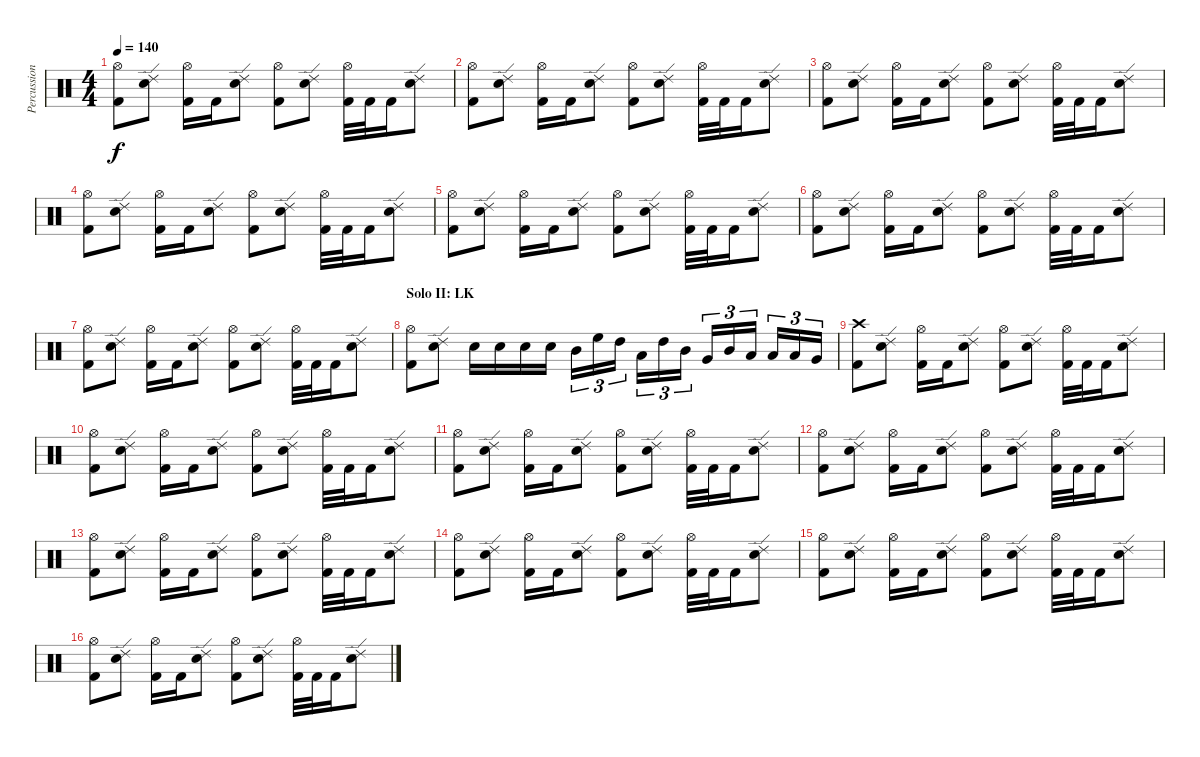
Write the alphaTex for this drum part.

\track ("Percussion" "Percussion") {instrument percussion}
\staff {score}
\articulation defaults
\ts (4 4)
\tempo 140
\clef neutral
\ks c
("Hi-Hat (open)" "Kick (hit) 2").8{dy f} ("Ride (edge) 2" "Electric Snare (hit)").8 ("Hi-Hat (open)" "Kick (hit) 2").16 "Kick (hit) 2".16 ("Ride (edge) 2" "Electric Snare (hit)").8 ("Hi-Hat (open)" "Kick (hit) 2").8 ("Ride (edge) 2" "Electric Snare (hit)").8 ("Hi-Hat (open)" "Kick (hit) 2").32 "Kick (hit) 2".32 "Kick (hit) 2".16 ("Ride (edge) 2" "Electric Snare (hit)").8 |
("Hi-Hat (open)" "Kick (hit) 2").8 ("Ride (edge) 2" "Electric Snare (hit)").8 ("Hi-Hat (open)" "Kick (hit) 2").16 "Kick (hit) 2".16 ("Ride (edge) 2" "Electric Snare (hit)").8 ("Hi-Hat (open)" "Kick (hit) 2").8 ("Ride (edge) 2" "Electric Snare (hit)").8 ("Hi-Hat (open)" "Kick (hit) 2").32 "Kick (hit) 2".32 "Kick (hit) 2".16 ("Ride (edge) 2" "Electric Snare (hit)").8 |
("Hi-Hat (open)" "Kick (hit) 2").8 ("Ride (edge) 2" "Electric Snare (hit)").8 ("Hi-Hat (open)" "Kick (hit) 2").16 "Kick (hit) 2".16 ("Ride (edge) 2" "Electric Snare (hit)").8 ("Hi-Hat (open)" "Kick (hit) 2").8 ("Ride (edge) 2" "Electric Snare (hit)").8 ("Hi-Hat (open)" "Kick (hit) 2").32 "Kick (hit) 2".32 "Kick (hit) 2".16 ("Ride (edge) 2" "Electric Snare (hit)").8 |
("Hi-Hat (open)" "Kick (hit) 2").8 ("Ride (edge) 2" "Electric Snare (hit)").8 ("Hi-Hat (open)" "Kick (hit) 2").16 "Kick (hit) 2".16 ("Ride (edge) 2" "Electric Snare (hit)").8 ("Hi-Hat (open)" "Kick (hit) 2").8 ("Ride (edge) 2" "Electric Snare (hit)").8 ("Hi-Hat (open)" "Kick (hit) 2").32 "Kick (hit) 2".32 "Kick (hit) 2".16 ("Ride (edge) 2" "Electric Snare (hit)").8 |
("Hi-Hat (open)" "Kick (hit) 2").8 ("Ride (edge) 2" "Electric Snare (hit)").8 ("Hi-Hat (open)" "Kick (hit) 2").16 "Kick (hit) 2".16 ("Ride (edge) 2" "Electric Snare (hit)").8 ("Hi-Hat (open)" "Kick (hit) 2").8 ("Ride (edge) 2" "Electric Snare (hit)").8 ("Hi-Hat (open)" "Kick (hit) 2").32 "Kick (hit) 2".32 "Kick (hit) 2".16 ("Ride (edge) 2" "Electric Snare (hit)").8 |
("Hi-Hat (open)" "Kick (hit) 2").8 ("Ride (edge) 2" "Electric Snare (hit)").8 ("Hi-Hat (open)" "Kick (hit) 2").16 "Kick (hit) 2".16 ("Ride (edge) 2" "Electric Snare (hit)").8 ("Hi-Hat (open)" "Kick (hit) 2").8 ("Ride (edge) 2" "Electric Snare (hit)").8 ("Hi-Hat (open)" "Kick (hit) 2").32 "Kick (hit) 2".32 "Kick (hit) 2".16 ("Ride (edge) 2" "Electric Snare (hit)").8 |
("Hi-Hat (open)" "Kick (hit) 2").8 ("Ride (edge) 2" "Electric Snare (hit)").8 ("Hi-Hat (open)" "Kick (hit) 2").16 "Kick (hit) 2".16 ("Ride (edge) 2" "Electric Snare (hit)").8 ("Hi-Hat (open)" "Kick (hit) 2").8 ("Ride (edge) 2" "Electric Snare (hit)").8 ("Hi-Hat (open)" "Kick (hit) 2").32 "Kick (hit) 2".32 "Kick (hit) 2".16 ("Ride (edge) 2" "Electric Snare (hit)").8 |
\section ("" "Solo II: LK")
("Hi-Hat (open)" "Kick (hit) 2").8 ("Ride (edge) 2" "Electric Snare (hit)").8 "Electric Snare (hit)".16 "Electric Snare (hit)".16 "Electric Snare (hit)".16 "Electric Snare (hit)".16 "Mid Tom (hit)".16{tu (3 2)} "High Floor Tom (hit)".16{tu (3 2)} "High Tom (hit)".16{tu (3 2)} "Low Tom (hit)".16{tu (3 2)} "High Tom (hit)".16{tu (3 2)} "Mid Tom (hit)".16{tu (3 2)} "Very Low Tom (hit)".16{tu (3 2)} "Mid Tom (hit)".16{tu (3 2)} "Low Tom (hit)".16{tu (3 2)} "Low Floor Tom (hit)".16{tu (3 2)} "Low Tom (hit)".16{tu (3 2)} "Very Low Tom (hit)".16{tu (3 2)} |
("Crash high (hit)" "Kick (hit) 2").8 ("Ride (edge) 2" "Electric Snare (hit)").8 ("Hi-Hat (open)" "Kick (hit) 2").16 "Kick (hit) 2".16 ("Ride (edge) 2" "Electric Snare (hit)").8 ("Hi-Hat (open)" "Kick (hit) 2").8 ("Ride (edge) 2" "Electric Snare (hit)").8 ("Hi-Hat (open)" "Kick (hit) 2").32 "Kick (hit) 2".32 "Kick (hit) 2".16 ("Ride (edge) 2" "Electric Snare (hit)").8 |
("Hi-Hat (open)" "Kick (hit) 2").8 ("Ride (edge) 2" "Electric Snare (hit)").8 ("Hi-Hat (open)" "Kick (hit) 2").16 "Kick (hit) 2".16 ("Ride (edge) 2" "Electric Snare (hit)").8 ("Hi-Hat (open)" "Kick (hit) 2").8 ("Ride (edge) 2" "Electric Snare (hit)").8 ("Hi-Hat (open)" "Kick (hit) 2").32 "Kick (hit) 2".32 "Kick (hit) 2".16 ("Ride (edge) 2" "Electric Snare (hit)").8 |
("Hi-Hat (open)" "Kick (hit) 2").8 ("Ride (edge) 2" "Electric Snare (hit)").8 ("Hi-Hat (open)" "Kick (hit) 2").16 "Kick (hit) 2".16 ("Ride (edge) 2" "Electric Snare (hit)").8 ("Hi-Hat (open)" "Kick (hit) 2").8 ("Ride (edge) 2" "Electric Snare (hit)").8 ("Hi-Hat (open)" "Kick (hit) 2").32 "Kick (hit) 2".32 "Kick (hit) 2".16 ("Ride (edge) 2" "Electric Snare (hit)").8 |
("Hi-Hat (open)" "Kick (hit) 2").8 ("Ride (edge) 2" "Electric Snare (hit)").8 ("Hi-Hat (open)" "Kick (hit) 2").16 "Kick (hit) 2".16 ("Ride (edge) 2" "Electric Snare (hit)").8 ("Hi-Hat (open)" "Kick (hit) 2").8 ("Ride (edge) 2" "Electric Snare (hit)").8 ("Hi-Hat (open)" "Kick (hit) 2").32 "Kick (hit) 2".32 "Kick (hit) 2".16 ("Ride (edge) 2" "Electric Snare (hit)").8 |
("Hi-Hat (open)" "Kick (hit) 2").8 ("Ride (edge) 2" "Electric Snare (hit)").8 ("Hi-Hat (open)" "Kick (hit) 2").16 "Kick (hit) 2".16 ("Ride (edge) 2" "Electric Snare (hit)").8 ("Hi-Hat (open)" "Kick (hit) 2").8 ("Ride (edge) 2" "Electric Snare (hit)").8 ("Hi-Hat (open)" "Kick (hit) 2").32 "Kick (hit) 2".32 "Kick (hit) 2".16 ("Ride (edge) 2" "Electric Snare (hit)").8 |
("Hi-Hat (open)" "Kick (hit) 2").8 ("Ride (edge) 2" "Electric Snare (hit)").8 ("Hi-Hat (open)" "Kick (hit) 2").16 "Kick (hit) 2".16 ("Ride (edge) 2" "Electric Snare (hit)").8 ("Hi-Hat (open)" "Kick (hit) 2").8 ("Ride (edge) 2" "Electric Snare (hit)").8 ("Hi-Hat (open)" "Kick (hit) 2").32 "Kick (hit) 2".32 "Kick (hit) 2".16 ("Ride (edge) 2" "Electric Snare (hit)").8 |
("Hi-Hat (open)" "Kick (hit) 2").8 ("Ride (edge) 2" "Electric Snare (hit)").8 ("Hi-Hat (open)" "Kick (hit) 2").16 "Kick (hit) 2".16 ("Ride (edge) 2" "Electric Snare (hit)").8 ("Hi-Hat (open)" "Kick (hit) 2").8 ("Ride (edge) 2" "Electric Snare (hit)").8 ("Hi-Hat (open)" "Kick (hit) 2").32 "Kick (hit) 2".32 "Kick (hit) 2".16 ("Ride (edge) 2" "Electric Snare (hit)").8 |
("Hi-Hat (open)" "Kick (hit) 2").8 ("Ride (edge) 2" "Electric Snare (hit)").8 ("Hi-Hat (open)" "Kick (hit) 2").16 "Kick (hit) 2".16 ("Ride (edge) 2" "Electric Snare (hit)").8 ("Hi-Hat (open)" "Kick (hit) 2").8 ("Ride (edge) 2" "Electric Snare (hit)").8 ("Hi-Hat (open)" "Kick (hit) 2").32 "Kick (hit) 2".32 "Kick (hit) 2".16 ("Ride (edge) 2" "Electric Snare (hit)").8
